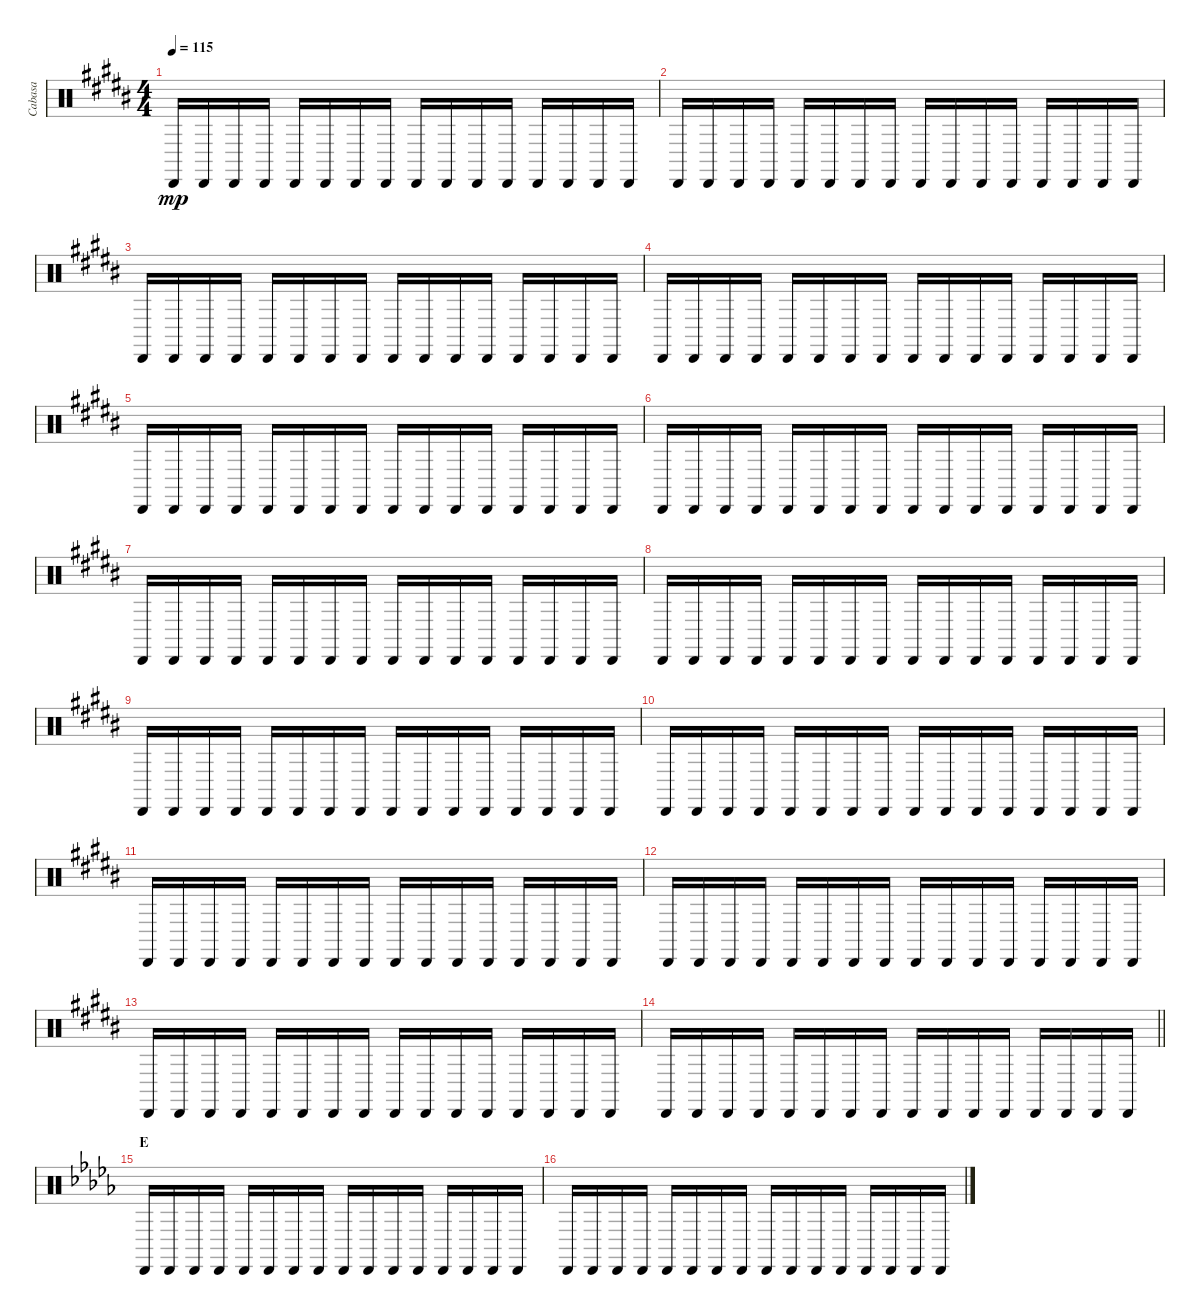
\track ("Cabasa" "Cabasa") {instrument percussion}
\staff {score}
\articulation defaults
\ts (4 4)
\tempo 115
\clef neutral
\ks b "Cabasa (hit)".16{dy mp} "Cabasa (hit)".16 "Cabasa (hit)".16 "Cabasa (hit)".16 "Cabasa (hit)".16 "Cabasa (hit)".16 "Cabasa (hit)".16 "Cabasa (hit)".16 "Cabasa (hit)".16 "Cabasa (hit)".16 "Cabasa (hit)".16 "Cabasa (hit)".16 "Cabasa (hit)".16 "Cabasa (hit)".16 "Cabasa (hit)".16 "Cabasa (hit)".16
|
"Cabasa (hit)".16 "Cabasa (hit)".16 "Cabasa (hit)".16 "Cabasa (hit)".16 "Cabasa (hit)".16 "Cabasa (hit)".16 "Cabasa (hit)".16 "Cabasa (hit)".16 "Cabasa (hit)".16 "Cabasa (hit)".16 "Cabasa (hit)".16 "Cabasa (hit)".16 "Cabasa (hit)".16 "Cabasa (hit)".16 "Cabasa (hit)".16 "Cabasa (hit)".16 |
"Cabasa (hit)".16 "Cabasa (hit)".16 "Cabasa (hit)".16 "Cabasa (hit)".16 "Cabasa (hit)".16 "Cabasa (hit)".16 "Cabasa (hit)".16 "Cabasa (hit)".16 "Cabasa (hit)".16 "Cabasa (hit)".16 "Cabasa (hit)".16 "Cabasa (hit)".16 "Cabasa (hit)".16 "Cabasa (hit)".16 "Cabasa (hit)".16 "Cabasa (hit)".16 |
"Cabasa (hit)".16 "Cabasa (hit)".16 "Cabasa (hit)".16 "Cabasa (hit)".16 "Cabasa (hit)".16 "Cabasa (hit)".16 "Cabasa (hit)".16 "Cabasa (hit)".16 "Cabasa (hit)".16 "Cabasa (hit)".16 "Cabasa (hit)".16 "Cabasa (hit)".16 "Cabasa (hit)".16 "Cabasa (hit)".16 "Cabasa (hit)".16 "Cabasa (hit)".16 |
"Cabasa (hit)".16 "Cabasa (hit)".16 "Cabasa (hit)".16 "Cabasa (hit)".16 "Cabasa (hit)".16 "Cabasa (hit)".16 "Cabasa (hit)".16 "Cabasa (hit)".16 "Cabasa (hit)".16 "Cabasa (hit)".16 "Cabasa (hit)".16 "Cabasa (hit)".16 "Cabasa (hit)".16 "Cabasa (hit)".16 "Cabasa (hit)".16 "Cabasa (hit)".16 |
"Cabasa (hit)".16 "Cabasa (hit)".16 "Cabasa (hit)".16 "Cabasa (hit)".16 "Cabasa (hit)".16 "Cabasa (hit)".16 "Cabasa (hit)".16 "Cabasa (hit)".16 "Cabasa (hit)".16 "Cabasa (hit)".16 "Cabasa (hit)".16 "Cabasa (hit)".16 "Cabasa (hit)".16 "Cabasa (hit)".16 "Cabasa (hit)".16 "Cabasa (hit)".16 |
"Cabasa (hit)".16 "Cabasa (hit)".16 "Cabasa (hit)".16 "Cabasa (hit)".16 "Cabasa (hit)".16 "Cabasa (hit)".16 "Cabasa (hit)".16 "Cabasa (hit)".16 "Cabasa (hit)".16 "Cabasa (hit)".16 "Cabasa (hit)".16 "Cabasa (hit)".16 "Cabasa (hit)".16 "Cabasa (hit)".16 "Cabasa (hit)".16 "Cabasa (hit)".16 |
"Cabasa (hit)".16 "Cabasa (hit)".16 "Cabasa (hit)".16 "Cabasa (hit)".16 "Cabasa (hit)".16 "Cabasa (hit)".16 "Cabasa (hit)".16 "Cabasa (hit)".16 "Cabasa (hit)".16 "Cabasa (hit)".16 "Cabasa (hit)".16 "Cabasa (hit)".16 "Cabasa (hit)".16 "Cabasa (hit)".16 "Cabasa (hit)".16 "Cabasa (hit)".16 |
"Cabasa (hit)".16 "Cabasa (hit)".16 "Cabasa (hit)".16 "Cabasa (hit)".16 "Cabasa (hit)".16 "Cabasa (hit)".16 "Cabasa (hit)".16 "Cabasa (hit)".16 "Cabasa (hit)".16 "Cabasa (hit)".16 "Cabasa (hit)".16 "Cabasa (hit)".16 "Cabasa (hit)".16 "Cabasa (hit)".16 "Cabasa (hit)".16 "Cabasa (hit)".16 |
"Cabasa (hit)".16 "Cabasa (hit)".16 "Cabasa (hit)".16 "Cabasa (hit)".16 "Cabasa (hit)".16 "Cabasa (hit)".16 "Cabasa (hit)".16 "Cabasa (hit)".16 "Cabasa (hit)".16 "Cabasa (hit)".16 "Cabasa (hit)".16 "Cabasa (hit)".16 "Cabasa (hit)".16 "Cabasa (hit)".16 "Cabasa (hit)".16 "Cabasa (hit)".16 |
"Cabasa (hit)".16 "Cabasa (hit)".16 "Cabasa (hit)".16 "Cabasa (hit)".16 "Cabasa (hit)".16 "Cabasa (hit)".16 "Cabasa (hit)".16 "Cabasa (hit)".16 "Cabasa (hit)".16 "Cabasa (hit)".16 "Cabasa (hit)".16 "Cabasa (hit)".16 "Cabasa (hit)".16 "Cabasa (hit)".16 "Cabasa (hit)".16 "Cabasa (hit)".16 |
"Cabasa (hit)".16 "Cabasa (hit)".16 "Cabasa (hit)".16 "Cabasa (hit)".16 "Cabasa (hit)".16 "Cabasa (hit)".16 "Cabasa (hit)".16 "Cabasa (hit)".16 "Cabasa (hit)".16 "Cabasa (hit)".16 "Cabasa (hit)".16 "Cabasa (hit)".16 "Cabasa (hit)".16 "Cabasa (hit)".16 "Cabasa (hit)".16 "Cabasa (hit)".16 |
"Cabasa (hit)".16 "Cabasa (hit)".16 "Cabasa (hit)".16 "Cabasa (hit)".16 "Cabasa (hit)".16 "Cabasa (hit)".16 "Cabasa (hit)".16 "Cabasa (hit)".16 "Cabasa (hit)".16 "Cabasa (hit)".16 "Cabasa (hit)".16 "Cabasa (hit)".16 "Cabasa (hit)".16 "Cabasa (hit)".16 "Cabasa (hit)".16 "Cabasa (hit)".16 |
\barLineRight lightlight "Cabasa (hit)".16 "Cabasa (hit)".16 "Cabasa (hit)".16 "Cabasa (hit)".16 "Cabasa (hit)".16 "Cabasa (hit)".16 "Cabasa (hit)".16 "Cabasa (hit)".16 "Cabasa (hit)".16 "Cabasa (hit)".16 "Cabasa (hit)".16 "Cabasa (hit)".16 "Cabasa (hit)".16 "Cabasa (hit)".16 "Cabasa (hit)".16 "Cabasa (hit)".16
|
\section ("" "E")
\ks db "Cabasa (hit)".16 "Cabasa (hit)".16 "Cabasa (hit)".16 "Cabasa (hit)".16 "Cabasa (hit)".16 "Cabasa (hit)".16 "Cabasa (hit)".16 "Cabasa (hit)".16 "Cabasa (hit)".16 "Cabasa (hit)".16 "Cabasa (hit)".16 "Cabasa (hit)".16 "Cabasa (hit)".16 "Cabasa (hit)".16 "Cabasa (hit)".16 "Cabasa (hit)".16
|
"Cabasa (hit)".16 "Cabasa (hit)".16 "Cabasa (hit)".16 "Cabasa (hit)".16 "Cabasa (hit)".16 "Cabasa (hit)".16 "Cabasa (hit)".16 "Cabasa (hit)".16 "Cabasa (hit)".16 "Cabasa (hit)".16 "Cabasa (hit)".16 "Cabasa (hit)".16 "Cabasa (hit)".16 "Cabasa (hit)".16 "Cabasa (hit)".16 "Cabasa (hit)".16
